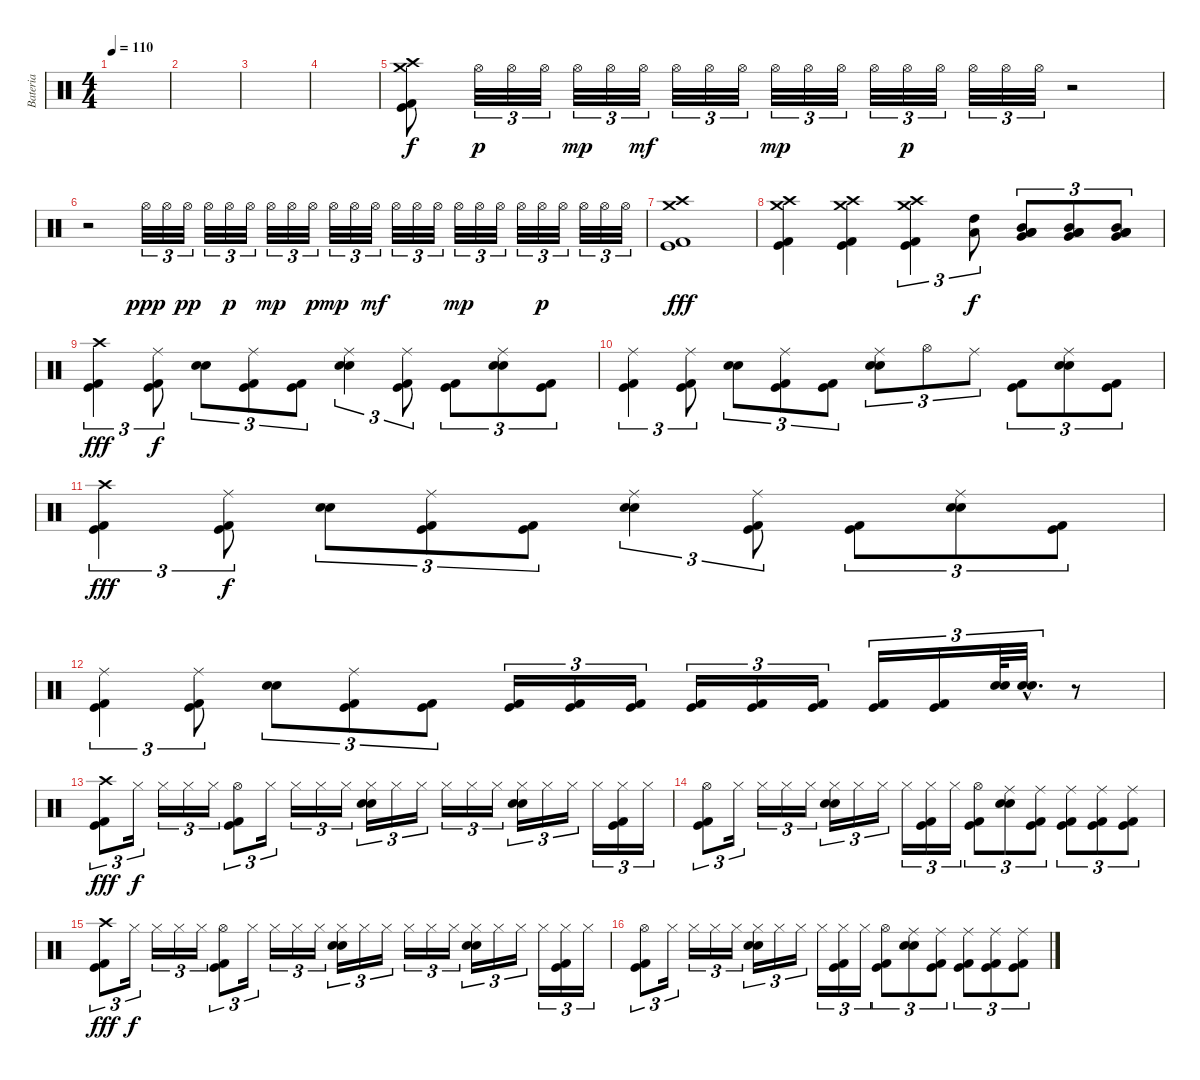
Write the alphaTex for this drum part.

\track ("Bateria" "Bateria") {instrument percussion}
\staff {score}
\articulation defaults
\ts (4 4)
\tempo 110
\clef neutral
\ks c
|
|
|
|
("Crash high (hit)" "Crash medium (hit)" "Kick (hit) 2" "Kick (hit)").8 "Hi-Hat (open)".32{tu (3 2) dy p} "Hi-Hat (open)".32{tu (3 2)} "Hi-Hat (open)".32{tu (3 2)} "Hi-Hat (open)".32{tu (3 2) dy mp} "Hi-Hat (open)".32{tu (3 2)} "Hi-Hat (open)".32{tu (3 2) dy mf} "Hi-Hat (open)".32{tu (3 2)} "Hi-Hat (open)".32{tu (3 2)} "Hi-Hat (open)".32{tu (3 2)} "Hi-Hat (open)".32{tu (3 2) dy mp} "Hi-Hat (open)".32{tu (3 2)} "Hi-Hat (open)".32{tu (3 2)} "Hi-Hat (open)".32{tu (3 2)} "Hi-Hat (open)".32{tu (3 2) dy p} "Hi-Hat (open)".32{tu (3 2)} "Hi-Hat (open)".32{tu (3 2)} "Hi-Hat (open)".32{tu (3 2)} "Hi-Hat (open)".32{tu (3 2)} r.2 |
r.2 "Hi-Hat (open)".32{tu (3 2) dy ppp} "Hi-Hat (open)".32{tu (3 2)} "Hi-Hat (open)".32{tu (3 2) dy pp} "Hi-Hat (open)".32{tu (3 2)} "Hi-Hat (open)".32{tu (3 2) dy p} "Hi-Hat (open)".32{tu (3 2)} "Hi-Hat (open)".32{tu (3 2) dy mp} "Hi-Hat (open)".32{tu (3 2)} "Hi-Hat (open)".32{tu (3 2) dy p} "Hi-Hat (open)".32{tu (3 2) dy mp} "Hi-Hat (open)".32{tu (3 2)} "Hi-Hat (open)".32{tu (3 2) dy mf} "Hi-Hat (open)".32{tu (3 2)} "Hi-Hat (open)".32{tu (3 2)} "Hi-Hat (open)".32{tu (3 2)} "Hi-Hat (open)".32{tu (3 2) dy mp} "Hi-Hat (open)".32{tu (3 2)} "Hi-Hat (open)".32{tu (3 2)} "Hi-Hat (open)".32{tu (3 2)} "Hi-Hat (open)".32{tu (3 2) dy p} "Hi-Hat (open)".32{tu (3 2)} "Hi-Hat (open)".32{tu (3 2)} "Hi-Hat (open)".32{tu (3 2)} "Hi-Hat (open)".32{tu (3 2)} |
("Crash high (hit)" "Crash medium (hit)" "Kick (hit) 2" "Kick (hit)").1{dy fff} |
("Crash high (hit)" "Crash medium (hit)" "Kick (hit) 2" "Kick (hit)").4 ("Crash high (hit)" "Crash medium (hit)" "Kick (hit) 2" "Kick (hit)").4 ("Crash high (hit)" "Crash medium (hit)" "Kick (hit) 2" "Kick (hit)").4{tu (3 2)} ("High Tom (hit)" "Low Tom (hit)").8{tu (3 2) dy f} ("Low Floor Tom (hit)" "Low Tom (hit)" "Mid Tom (hit)" "Very Low Tom (hit)").8{tu (3 2)} ("Low Floor Tom (hit)" "Low Tom (hit)" "Mid Tom (hit)" "Very Low Tom (hit)").8{tu (3 2)} ("Low Floor Tom (hit)" "Low Tom (hit)" "Mid Tom (hit)" "Very Low Tom (hit)").8{tu (3 2)} |
("Crash high (hit)" "Kick (hit) 2" "Kick (hit)").4{tu (3 2) dy fff} ("Ride (middle)" "Kick (hit) 2" "Kick (hit)").8{tu (3 2) dy f} ("Electric Snare (hit)" "Snare (hit) 2").8{tu (3 2)} ("Ride (middle)" "Kick (hit) 2" "Kick (hit)").8{tu (3 2)} ("Kick (hit) 2" "Kick (hit)").8{tu (3 2)} ("Ride (middle)" "Electric Snare (hit)" "Snare (hit) 2").4{tu (3 2)} ("Ride (middle)" "Kick (hit) 2" "Kick (hit)").8{tu (3 2)} ("Kick (hit) 2" "Kick (hit)").8{tu (3 2)} ("Ride (middle)" "Electric Snare (hit)" "Snare (hit) 2").8{tu (3 2)} ("Kick (hit) 2" "Kick (hit)").8{tu (3 2)} |
("Ride (middle)" "Kick (hit) 2" "Kick (hit)").4{tu (3 2)} ("Ride (middle)" "Kick (hit) 2" "Kick (hit)").8{tu (3 2)} ("Electric Snare (hit)" "Snare (hit) 2").8{tu (3 2)} ("Ride (middle)" "Kick (hit) 2" "Kick (hit)").8{tu (3 2)} ("Kick (hit) 2" "Kick (hit)").8{tu (3 2)} ("Ride (middle)" "Electric Snare (hit)" "Snare (hit) 2").8{tu (3 2)} "Hi-Hat (open)".8{tu (3 2)} "Ride (middle)".8{tu (3 2)} ("Kick (hit) 2" "Kick (hit)").8{tu (3 2)} ("Ride (middle)" "Electric Snare (hit)" "Snare (hit) 2").8{tu (3 2)} ("Kick (hit) 2" "Kick (hit)").8{tu (3 2)} |
("Crash high (hit)" "Kick (hit) 2" "Kick (hit)").4{tu (3 2) dy fff} ("Ride (middle)" "Kick (hit) 2" "Kick (hit)").8{tu (3 2) dy f} ("Electric Snare (hit)" "Snare (hit) 2").8{tu (3 2)} ("Ride (middle)" "Kick (hit) 2" "Kick (hit)").8{tu (3 2)} ("Kick (hit) 2" "Kick (hit)").8{tu (3 2)} ("Ride (middle)" "Electric Snare (hit)" "Snare (hit) 2").4{tu (3 2)} ("Ride (middle)" "Kick (hit) 2" "Kick (hit)").8{tu (3 2)} ("Kick (hit) 2" "Kick (hit)").8{tu (3 2)} ("Ride (middle)" "Electric Snare (hit)" "Snare (hit) 2").8{tu (3 2)} ("Kick (hit) 2" "Kick (hit)").8{tu (3 2)} |
("Ride (middle)" "Kick (hit) 2" "Kick (hit)").4{tu (3 2)} ("Ride (middle)" "Kick (hit) 2" "Kick (hit)").8{tu (3 2)} ("Electric Snare (hit)" "Snare (hit) 2").8{tu (3 2)} ("Ride (middle)" "Kick (hit) 2" "Kick (hit)").8{tu (3 2)} ("Kick (hit) 2" "Kick (hit)").8{tu (3 2)} ("Kick (hit) 2" "Kick (hit)").16{tu (3 2)} ("Kick (hit) 2" "Kick (hit)").16{tu (3 2)} ("Kick (hit) 2" "Kick (hit)").16{tu (3 2)} ("Kick (hit) 2" "Kick (hit)").16{tu (3 2)} ("Kick (hit) 2" "Kick (hit)").16{tu (3 2)} ("Kick (hit) 2" "Kick (hit)").16{tu (3 2)} ("Kick (hit) 2" "Kick (hit)").16{tu (3 2)} ("Kick (hit) 2" "Kick (hit)").16{tu (3 2)} ("Electric Snare (hit)" "Snare (hit) 2").64{tu (3 2)} ("Electric Snare (hit)"{hac} "Snare (hit) 2"{hac}).32{d tu (3 2)} r.8 |
("Crash high (hit)" "Kick (hit) 2" "Kick (hit)").8{tu (3 2) dy fff} "Hi-Hat (closed)".16{tu (3 2) dy f} "Hi-Hat (closed)".16{tu (3 2)} "Hi-Hat (closed)".16{tu (3 2)} "Hi-Hat (closed)".16{tu (3 2)} ("Hi-Hat (open)" "Kick (hit) 2" "Kick (hit)").8{tu (3 2)} "Hi-Hat (closed)".16{tu (3 2)} "Hi-Hat (closed)".16{tu (3 2)} "Hi-Hat (closed)".16{tu (3 2)} "Hi-Hat (closed)".16{tu (3 2)} ("Hi-Hat (closed)" "Electric Snare (hit)" "Snare (hit) 2").16{tu (3 2)} "Hi-Hat (closed)".16{tu (3 2)} "Hi-Hat (closed)".16{tu (3 2)} "Hi-Hat (closed)".16{tu (3 2)} "Hi-Hat (closed)".16{tu (3 2)} "Hi-Hat (closed)".16{tu (3 2)} ("Hi-Hat (closed)" "Electric Snare (hit)" "Snare (hit) 2").16{tu (3 2)} "Hi-Hat (closed)".16{tu (3 2)} "Hi-Hat (closed)".16{tu (3 2)} "Hi-Hat (closed)".16{tu (3 2)} ("Hi-Hat (closed)" "Kick (hit) 2" "Kick (hit)").16{tu (3 2)} "Hi-Hat (closed)".16{tu (3 2)} |
("Hi-Hat (open)" "Kick (hit) 2" "Kick (hit)").8{tu (3 2)} "Hi-Hat (closed)".16{tu (3 2)} "Hi-Hat (closed)".16{tu (3 2)} "Hi-Hat (closed)".16{tu (3 2)} "Hi-Hat (closed)".16{tu (3 2)} ("Hi-Hat (closed)" "Electric Snare (hit)" "Snare (hit) 2").16{tu (3 2)} "Hi-Hat (closed)".16{tu (3 2)} "Hi-Hat (closed)".16{tu (3 2)} "Hi-Hat (closed)".16{tu (3 2)} ("Hi-Hat (closed)" "Kick (hit) 2" "Kick (hit)").16{tu (3 2)} "Hi-Hat (closed)".16{tu (3 2)} ("Hi-Hat (open)" "Kick (hit) 2" "Kick (hit)").8{tu (3 2)} ("Ride (middle)" "Electric Snare (hit)" "Snare (hit) 2").8{tu (3 2)} ("Ride (middle)" "Kick (hit) 2" "Kick (hit)").8{tu (3 2)} ("Ride (middle)" "Kick (hit) 2" "Kick (hit)").8{tu (3 2)} ("Ride (middle)" "Kick (hit) 2" "Kick (hit)").8{tu (3 2)} ("Ride (middle)" "Kick (hit) 2" "Kick (hit)").8{tu (3 2)} |
("Crash high (hit)" "Kick (hit) 2" "Kick (hit)").8{tu (3 2) dy fff} "Hi-Hat (closed)".16{tu (3 2) dy f} "Hi-Hat (closed)".16{tu (3 2)} "Hi-Hat (closed)".16{tu (3 2)} "Hi-Hat (closed)".16{tu (3 2)} ("Hi-Hat (open)" "Kick (hit) 2" "Kick (hit)").8{tu (3 2)} "Hi-Hat (closed)".16{tu (3 2)} "Hi-Hat (closed)".16{tu (3 2)} "Hi-Hat (closed)".16{tu (3 2)} "Hi-Hat (closed)".16{tu (3 2)} ("Hi-Hat (closed)" "Electric Snare (hit)" "Snare (hit) 2").16{tu (3 2)} "Hi-Hat (closed)".16{tu (3 2)} "Hi-Hat (closed)".16{tu (3 2)} "Hi-Hat (closed)".16{tu (3 2)} "Hi-Hat (closed)".16{tu (3 2)} "Hi-Hat (closed)".16{tu (3 2)} ("Hi-Hat (closed)" "Electric Snare (hit)" "Snare (hit) 2").16{tu (3 2)} "Hi-Hat (closed)".16{tu (3 2)} "Hi-Hat (closed)".16{tu (3 2)} "Hi-Hat (closed)".16{tu (3 2)} ("Hi-Hat (closed)" "Kick (hit) 2" "Kick (hit)").16{tu (3 2)} "Hi-Hat (closed)".16{tu (3 2)} |
("Hi-Hat (open)" "Kick (hit) 2" "Kick (hit)").8{tu (3 2)} "Hi-Hat (closed)".16{tu (3 2)} "Hi-Hat (closed)".16{tu (3 2)} "Hi-Hat (closed)".16{tu (3 2)} "Hi-Hat (closed)".16{tu (3 2)} ("Hi-Hat (closed)" "Electric Snare (hit)" "Snare (hit) 2").16{tu (3 2)} "Hi-Hat (closed)".16{tu (3 2)} "Hi-Hat (closed)".16{tu (3 2)} "Hi-Hat (closed)".16{tu (3 2)} ("Hi-Hat (closed)" "Kick (hit) 2" "Kick (hit)").16{tu (3 2)} "Hi-Hat (closed)".16{tu (3 2)} ("Hi-Hat (open)" "Kick (hit) 2" "Kick (hit)").8{tu (3 2)} ("Ride (middle)" "Electric Snare (hit)" "Snare (hit) 2").8{tu (3 2)} ("Ride (middle)" "Kick (hit) 2" "Kick (hit)").8{tu (3 2)} ("Ride (middle)" "Kick (hit) 2" "Kick (hit)").8{tu (3 2)} ("Ride (middle)" "Kick (hit) 2" "Kick (hit)").8{tu (3 2)} ("Ride (middle)" "Kick (hit) 2" "Kick (hit)").8{tu (3 2)}
